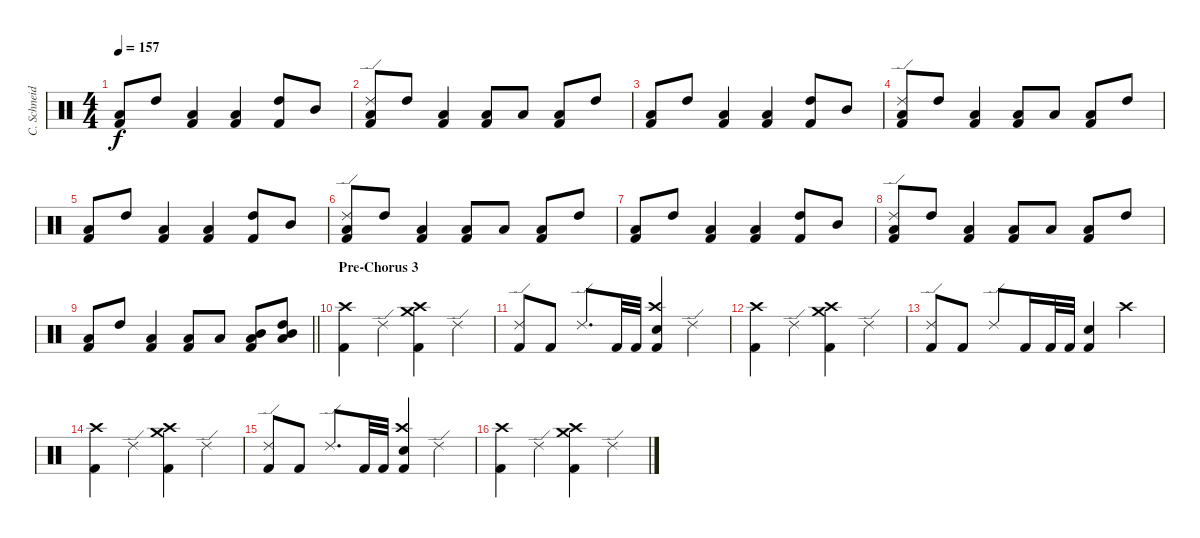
\track ("C. Schneider" "C. Schneid") {instrument percussion}
\staff {score}
\articulation defaults
\ts (4 4)
\tempo 157
\clef neutral
\ks c
("Kick (hit) 2" "Low Tom (hit)").8{dy f} "High Tom (hit)".8 ("Kick (hit) 2" "Low Tom (hit)").4 ("Kick (hit) 2" "Low Tom (hit)").4 ("Kick (hit) 2" "High Tom (hit)").8 "Mid Tom (hit)".8 |
("Kick (hit) 2" "Low Tom (hit)" "Ride (edge) 2").8 "High Tom (hit)".8 ("Kick (hit) 2" "Low Tom (hit)").4 ("Kick (hit) 2" "Low Tom (hit)").8 "Low Tom (hit)".8 ("Kick (hit) 2" "Low Tom (hit)").8 "High Tom (hit)".8 |
("Kick (hit) 2" "Low Tom (hit)").8 "High Tom (hit)".8 ("Kick (hit) 2" "Low Tom (hit)").4 ("Kick (hit) 2" "Low Tom (hit)").4 ("Kick (hit) 2" "High Tom (hit)").8 "Mid Tom (hit)".8 |
("Kick (hit) 2" "Low Tom (hit)" "Ride (edge) 2").8 "High Tom (hit)".8 ("Kick (hit) 2" "Low Tom (hit)").4 ("Kick (hit) 2" "Low Tom (hit)").8 "Low Tom (hit)".8 ("Kick (hit) 2" "Low Tom (hit)").8 "High Tom (hit)".8 |
("Kick (hit) 2" "Low Tom (hit)").8 "High Tom (hit)".8 ("Kick (hit) 2" "Low Tom (hit)").4 ("Kick (hit) 2" "Low Tom (hit)").4 ("Kick (hit) 2" "High Tom (hit)").8 "Mid Tom (hit)".8 |
("Kick (hit) 2" "Low Tom (hit)" "Ride (edge) 2").8 "High Tom (hit)".8 ("Kick (hit) 2" "Low Tom (hit)").4 ("Kick (hit) 2" "Low Tom (hit)").8 "Low Tom (hit)".8 ("Kick (hit) 2" "Low Tom (hit)").8 "High Tom (hit)".8 |
("Kick (hit) 2" "Low Tom (hit)").8 "High Tom (hit)".8 ("Kick (hit) 2" "Low Tom (hit)").4 ("Kick (hit) 2" "Low Tom (hit)").4 ("Kick (hit) 2" "High Tom (hit)").8 "Mid Tom (hit)".8 |
("Kick (hit) 2" "Low Tom (hit)" "Ride (edge) 2").8 "High Tom (hit)".8 ("Kick (hit) 2" "Low Tom (hit)").4 ("Kick (hit) 2" "Low Tom (hit)").8 "Low Tom (hit)".8 ("Kick (hit) 2" "Low Tom (hit)").8 "High Tom (hit)".8 |
\barLineRight lightlight
("Kick (hit) 2" "Low Tom (hit)").8 "High Tom (hit)".8 ("Kick (hit) 2" "Low Tom (hit)").4 ("Kick (hit) 2" "Low Tom (hit)").8 "Low Tom (hit)".8 ("Kick (hit) 2" "Low Tom (hit)" "Mid Tom (hit)").8 ("Low Tom (hit)" "Mid Tom (hit)" "High Tom (hit)").8 |
\section ("" "Pre-Chorus 3")
("Kick (hit) 2" "Crash high (hit)").4 "Ride (edge) 2".4 ("Kick (hit) 2" "Crash high (hit)" "Crash medium (hit)").4 "Ride (edge) 2".4 |
("Kick (hit) 2" "Ride (edge) 2").8 "Kick (hit) 2".8 "Ride (edge) 2".8{d} "Kick (hit) 2".32 "Kick (hit) 2".32 ("Kick (hit) 2" "Electric Snare (hit)" "Crash high (hit)").4 "Ride (edge) 2".4 |
("Kick (hit) 2" "Crash high (hit)").4 "Ride (edge) 2".4 ("Kick (hit) 2" "Crash high (hit)" "Crash medium (hit)").4 "Ride (edge) 2".4 |
("Kick (hit) 2" "Ride (edge) 2").8 "Kick (hit) 2".8 "Ride (edge) 2".8 "Kick (hit) 2".16 "Kick (hit) 2".32 "Kick (hit) 2".32 ("Kick (hit) 2" "Electric Snare (hit)").4 "Crash high (hit)".4 |
("Kick (hit) 2" "Crash high (hit)").4 "Ride (edge) 2".4 ("Kick (hit) 2" "Crash high (hit)" "Crash medium (hit)").4 "Ride (edge) 2".4 |
("Kick (hit) 2" "Ride (edge) 2").8 "Kick (hit) 2".8 "Ride (edge) 2".8{d} "Kick (hit) 2".32 "Kick (hit) 2".32 ("Kick (hit) 2" "Electric Snare (hit)" "Crash high (hit)").4 "Ride (edge) 2".4 |
("Kick (hit) 2" "Crash high (hit)").4 "Ride (edge) 2".4 ("Kick (hit) 2" "Crash high (hit)" "Crash medium (hit)").4 "Ride (edge) 2".4
